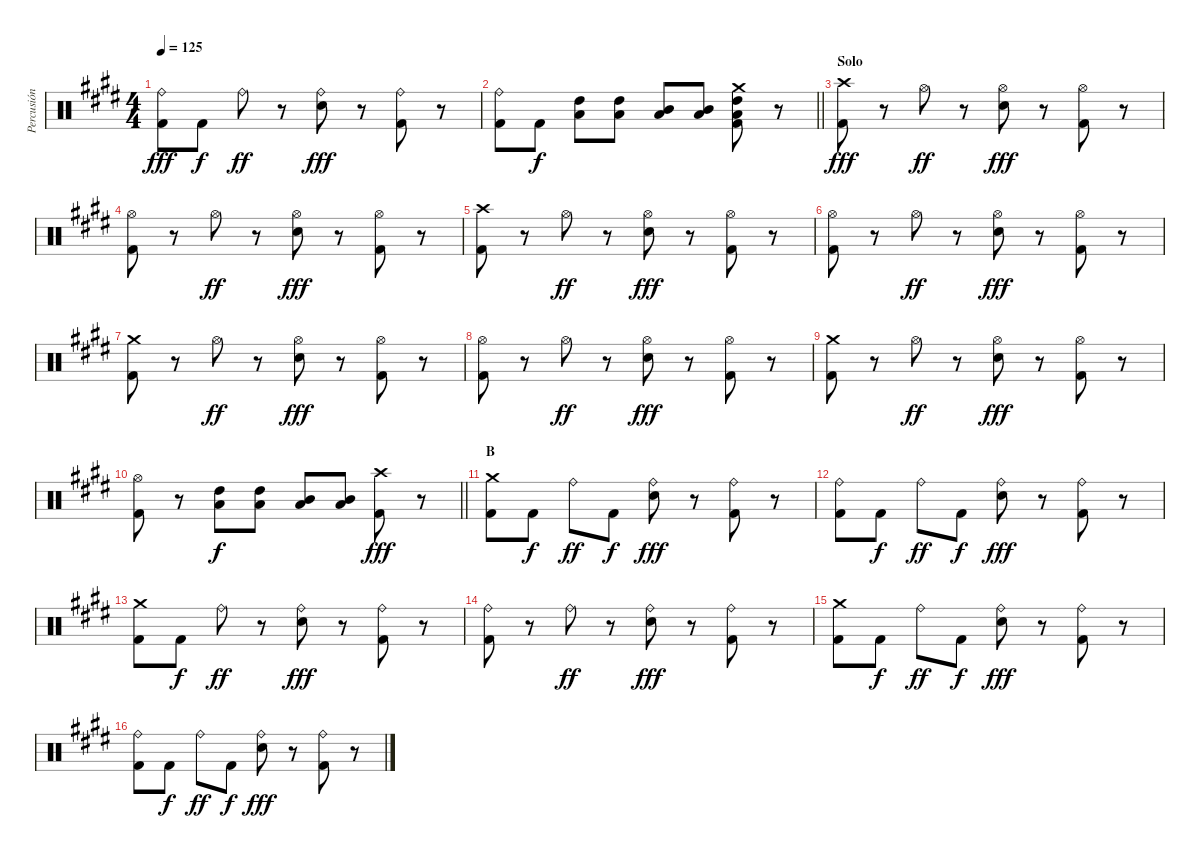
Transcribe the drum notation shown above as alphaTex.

\track ("Percusión" "Percusión") {instrument percussion}
\staff {score}
\articulation defaults
\ts (4 4)
\tempo 125
\clef neutral
\ks e
("Ride (bell)" "Kick (hit) 2").8{dy fff} "Kick (hit) 2".8{dy f} "Ride (bell)".8{dy ff} r.8 ("Ride (bell)" "Electric Snare (hit)").8{dy fff} r.8 ("Ride (bell)" "Kick (hit) 2").8 r.8 |
\barLineRight lightlight
("Ride (bell)" "Kick (hit) 2").8 "Kick (hit) 2".8{dy f} ("Low Tom (hit)" "High Tom (hit)").8 ("Low Tom (hit)" "High Tom (hit)").8 ("Low Tom (hit)" "Mid Tom (hit)").8 ("Low Tom (hit)" "Mid Tom (hit)").8 ("Crash medium (hit)" "Low Tom (hit)" "High Tom (hit)" "Kick (hit) 2").8 r.8 |
\section ("" "Solo")
("Crash high (hit)" "Kick (hit) 2").8{dy fff} r.8 "Hi-Hat (open)".8{dy ff} r.8 ("Hi-Hat (open)" "Electric Snare (hit)").8{dy fff} r.8 ("Hi-Hat (open)" "Kick (hit) 2").8 r.8 |
("Hi-Hat (open)" "Kick (hit) 2").8 r.8 "Hi-Hat (open)".8{dy ff} r.8 ("Hi-Hat (open)" "Electric Snare (hit)").8{dy fff} r.8 ("Hi-Hat (open)" "Kick (hit) 2").8 r.8 |
("Crash high (hit)" "Kick (hit) 2").8 r.8 "Hi-Hat (open)".8{dy ff} r.8 ("Hi-Hat (open)" "Electric Snare (hit)").8{dy fff} r.8 ("Hi-Hat (open)" "Kick (hit) 2").8 r.8 |
("Hi-Hat (open)" "Kick (hit) 2").8 r.8 "Hi-Hat (open)".8{dy ff} r.8 ("Hi-Hat (open)" "Electric Snare (hit)").8{dy fff} r.8 ("Hi-Hat (open)" "Kick (hit) 2").8 r.8 |
("Crash medium (hit)" "Kick (hit) 2").8 r.8 "Hi-Hat (open)".8{dy ff} r.8 ("Hi-Hat (open)" "Electric Snare (hit)").8{dy fff} r.8 ("Hi-Hat (open)" "Kick (hit) 2").8 r.8 |
("Hi-Hat (open)" "Kick (hit) 2").8 r.8 "Hi-Hat (open)".8{dy ff} r.8 ("Hi-Hat (open)" "Electric Snare (hit)").8{dy fff} r.8 ("Hi-Hat (open)" "Kick (hit) 2").8 r.8 |
("Crash medium (hit)" "Kick (hit) 2").8 r.8 "Hi-Hat (open)".8{dy ff} r.8 ("Hi-Hat (open)" "Electric Snare (hit)").8{dy fff} r.8 ("Hi-Hat (open)" "Kick (hit) 2").8 r.8 |
\barLineRight lightlight
("Hi-Hat (open)" "Kick (hit) 2").8 r.8 ("Low Tom (hit)" "High Tom (hit)").8{dy f} ("Low Tom (hit)" "High Tom (hit)").8 ("Low Tom (hit)" "Mid Tom (hit)").8 ("Low Tom (hit)" "Mid Tom (hit)").8 ("Crash high (hit)" "Kick (hit) 2").8{dy fff} r.8 |
\section ("" "B")
("Crash medium (hit)" "Kick (hit) 2").8 "Kick (hit) 2".8{dy f} "Ride (bell)".8{dy ff} "Kick (hit) 2".8{dy f} ("Ride (bell)" "Electric Snare (hit)").8{dy fff} r.8 ("Ride (bell)" "Kick (hit) 2").8 r.8 |
("Ride (bell)" "Kick (hit) 2").8 "Kick (hit) 2".8{dy f} "Ride (bell)".8{dy ff} "Kick (hit) 2".8{dy f} ("Ride (bell)" "Electric Snare (hit)").8{dy fff} r.8 ("Ride (bell)" "Kick (hit) 2").8 r.8 |
("Crash medium (hit)" "Kick (hit) 2").8 "Kick (hit) 2".8{dy f} "Ride (bell)".8{dy ff} r.8 ("Ride (bell)" "Electric Snare (hit)").8{dy fff} r.8 ("Ride (bell)" "Kick (hit) 2").8 r.8 |
("Ride (bell)" "Kick (hit) 2").8 r.8 "Ride (bell)".8{dy ff} r.8 ("Ride (bell)" "Electric Snare (hit)").8{dy fff} r.8 ("Ride (bell)" "Kick (hit) 2").8 r.8 |
("Crash medium (hit)" "Kick (hit) 2").8 "Kick (hit) 2".8{dy f} "Ride (bell)".8{dy ff} "Kick (hit) 2".8{dy f} ("Ride (bell)" "Electric Snare (hit)").8{dy fff} r.8 ("Ride (bell)" "Kick (hit) 2").8 r.8 |
("Ride (bell)" "Kick (hit) 2").8 "Kick (hit) 2".8{dy f} "Ride (bell)".8{dy ff} "Kick (hit) 2".8{dy f} ("Ride (bell)" "Electric Snare (hit)").8{dy fff} r.8 ("Ride (bell)" "Kick (hit) 2").8 r.8
